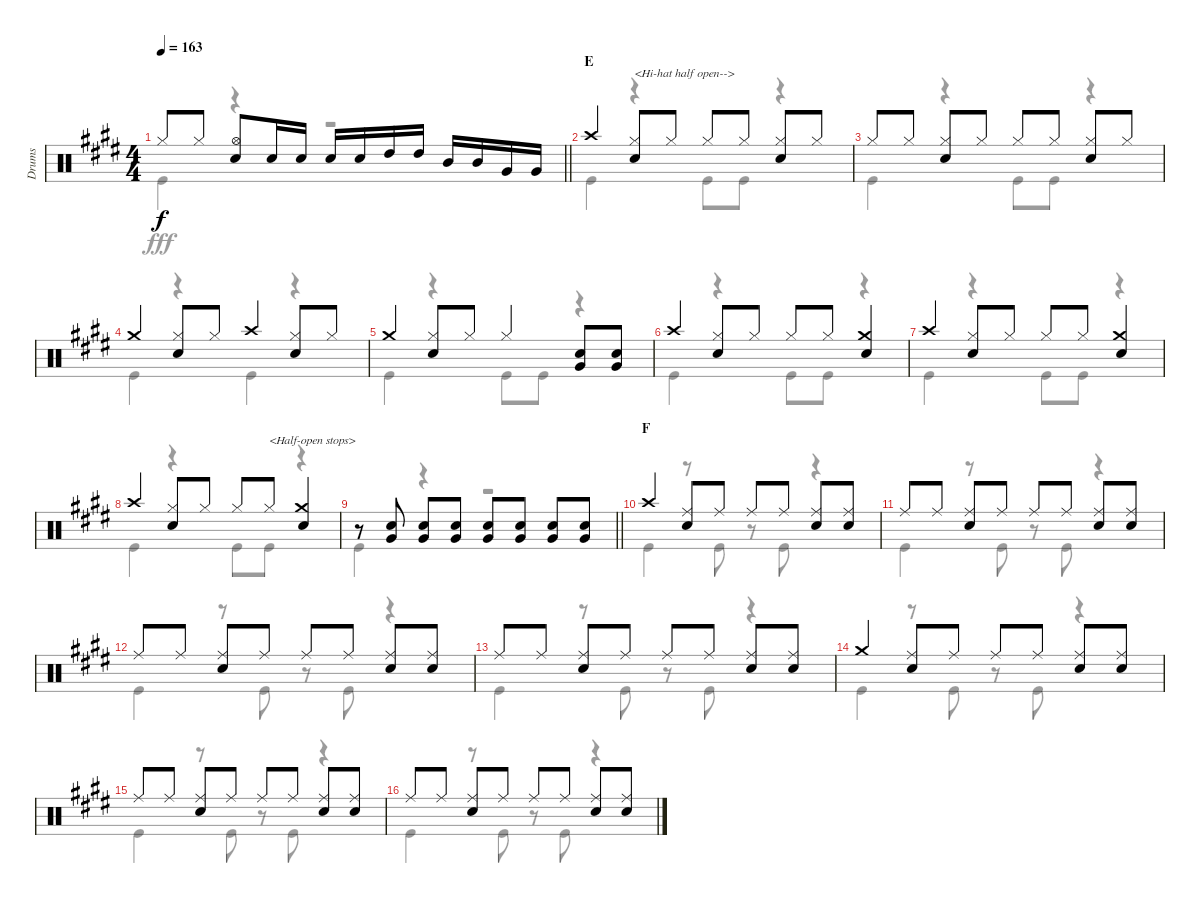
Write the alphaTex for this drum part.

\track ("Drums" "Drums") {instrument percussion}
\staff {score}
\articulation defaults
\voice
\ts (4 4)
\tempo 163
\clef neutral
\barLineRight lightlight
\ks e "Hi-Hat (closed)".8{dy f} "Hi-Hat (closed)".8
("Hi-Hat (open)" "Snare (hit) 2").8 "Snare (hit) 2".16 "Snare (hit) 2".16 "Snare (hit) 2".16 "Snare (hit) 2".16 "High Tom (hit)".16 "High Tom (hit)".16 "Mid Tom (hit)".16 "Mid Tom (hit)".16 "Very Low Tom (hit)".16 "Very Low Tom (hit)".16 |
\section ("" "E")
"Crash high (hit)".4 ("Hi-Hat (closed)" "Snare (hit) 2").8{txt "<Hi-hat half open-->"} "Hi-Hat (closed)".8 "Hi-Hat (closed)".8 "Hi-Hat (closed)".8 ("Hi-Hat (closed)" "Snare (hit) 2").8 "Hi-Hat (closed)".8 |
"Hi-Hat (closed)".8 "Hi-Hat (closed)".8 ("Hi-Hat (closed)" "Snare (hit) 2").8 "Hi-Hat (closed)".8 "Hi-Hat (closed)".8 "Hi-Hat (closed)".8 ("Hi-Hat (closed)" "Snare (hit) 2").8 "Hi-Hat (closed)".8 |
"Crash medium (hit)".4 ("Hi-Hat (closed)" "Snare (hit) 2").8 "Hi-Hat (closed)".8 "Crash high (hit)".4 ("Hi-Hat (closed)" "Snare (hit) 2").8 "Hi-Hat (closed)".8 |
"Crash medium (hit)".4 ("Hi-Hat (closed)" "Snare (hit) 2").8 "Hi-Hat (closed)".8 "Hi-Hat (closed)".4 ("Snare (hit) 2" "Very Low Tom (hit)").8 ("Snare (hit) 2" "Very Low Tom (hit)").8 |
"Crash high (hit)".4 ("Hi-Hat (closed)" "Snare (hit) 2").8 "Hi-Hat (closed)".8 "Hi-Hat (closed)".8 "Hi-Hat (closed)".8 ("Crash medium (hit)" "Snare (hit) 2").4 |
"Crash high (hit)".4 ("Hi-Hat (closed)" "Snare (hit) 2").8 "Hi-Hat (closed)".8 "Hi-Hat (closed)".8 "Hi-Hat (closed)".8 ("Crash medium (hit)" "Snare (hit) 2").4 |
"Crash high (hit)".4 ("Hi-Hat (closed)" "Snare (hit) 2").8 "Hi-Hat (closed)".8 "Hi-Hat (closed)".8 "Hi-Hat (closed)".8{txt "<Half-open stops>"} ("Crash medium (hit)" "Snare (hit) 2").4 |
\barLineRight lightlight
r.8 ("Snare (hit) 2" "Very Low Tom (hit)").8 ("Snare (hit) 2" "Very Low Tom (hit)").8 ("Snare (hit) 2" "Very Low Tom (hit)").8 ("Snare (hit) 2" "Very Low Tom (hit)").8 ("Snare (hit) 2" "Very Low Tom (hit)").8 ("Snare (hit) 2" "Very Low Tom (hit)").8 ("Snare (hit) 2" "Very Low Tom (hit)").8 |
\section ("" "F")
"Crash high (hit)".4 ("Ride (middle)" "Snare (hit) 2").8 "Ride (middle)".8 "Ride (middle)".8 "Ride (middle)".8 ("Ride (middle)" "Snare (hit) 2").8 ("Ride (middle)" "Snare (hit) 2").8 |
"Ride (middle)".8 "Ride (middle)".8 ("Ride (middle)" "Snare (hit) 2").8 "Ride (middle)".8 "Ride (middle)".8 "Ride (middle)".8 ("Ride (middle)" "Snare (hit) 2").8 ("Ride (middle)" "Snare (hit) 2").8 |
"Ride (middle)".8 "Ride (middle)".8 ("Ride (middle)" "Snare (hit) 2").8 "Ride (middle)".8 "Ride (middle)".8 "Ride (middle)".8 ("Ride (middle)" "Snare (hit) 2").8 ("Ride (middle)" "Snare (hit) 2").8 |
"Ride (middle)".8 "Ride (middle)".8 ("Ride (middle)" "Snare (hit) 2").8 "Ride (middle)".8 "Ride (middle)".8 "Ride (middle)".8 ("Ride (middle)" "Snare (hit) 2").8 ("Ride (middle)" "Snare (hit) 2").8 |
"Crash medium (hit)".4 ("Ride (middle)" "Snare (hit) 2").8 "Ride (middle)".8 "Ride (middle)".8 "Ride (middle)".8 ("Ride (middle)" "Snare (hit) 2").8 ("Ride (middle)" "Snare (hit) 2").8 |
"Ride (middle)".8 "Ride (middle)".8 ("Ride (middle)" "Snare (hit) 2").8 "Ride (middle)".8 "Ride (middle)".8 "Ride (middle)".8 ("Ride (middle)" "Snare (hit) 2").8 ("Ride (middle)" "Snare (hit) 2").8 |
"Ride (middle)".8 "Ride (middle)".8 ("Ride (middle)" "Snare (hit) 2").8 "Ride (middle)".8 "Ride (middle)".8 "Ride (middle)".8 ("Ride (middle)" "Snare (hit) 2").8 ("Ride (middle)" "Snare (hit) 2").8
\voice
\clef neutral
\ottava regular
\simile none
\barLineRight lightlight
\ks e "Kick (hit)".4{dy fff}
r.4 r.2 |
"Kick (hit)".4 r.4 "Kick (hit)".8 "Kick (hit)".8 r.4 |
"Kick (hit)".4 r.4 "Kick (hit)".8 "Kick (hit)".8 r.4 |
"Kick (hit)".4 r.4 "Kick (hit)".4 r.4 |
"Kick (hit)".4 r.4 "Kick (hit)".8 "Kick (hit)".8 r.4 |
"Kick (hit)".4 r.4 "Kick (hit)".8 "Kick (hit)".8 r.4 |
"Kick (hit)".4 r.4 "Kick (hit)".8 "Kick (hit)".8 r.4 |
"Kick (hit)".4 r.4 "Kick (hit)".8 "Kick (hit)".8 r.4 |
\barLineRight lightlight "Kick (hit)".4
r.4 r.2 |
"Kick (hit)".4 r.8 "Kick (hit)".8 r.8 "Kick (hit)".8 r.4 |
"Kick (hit)".4 r.8 "Kick (hit)".8 r.8 "Kick (hit)".8 r.4 |
"Kick (hit)".4 r.8 "Kick (hit)".8 r.8 "Kick (hit)".8 r.4 |
"Kick (hit)".4 r.8 "Kick (hit)".8 r.8 "Kick (hit)".8 r.4 |
"Kick (hit)".4 r.8 "Kick (hit)".8 r.8 "Kick (hit)".8 r.4 |
"Kick (hit)".4 r.8 "Kick (hit)".8 r.8 "Kick (hit)".8 r.4 |
"Kick (hit)".4 r.8 "Kick (hit)".8 r.8 "Kick (hit)".8 r.4
